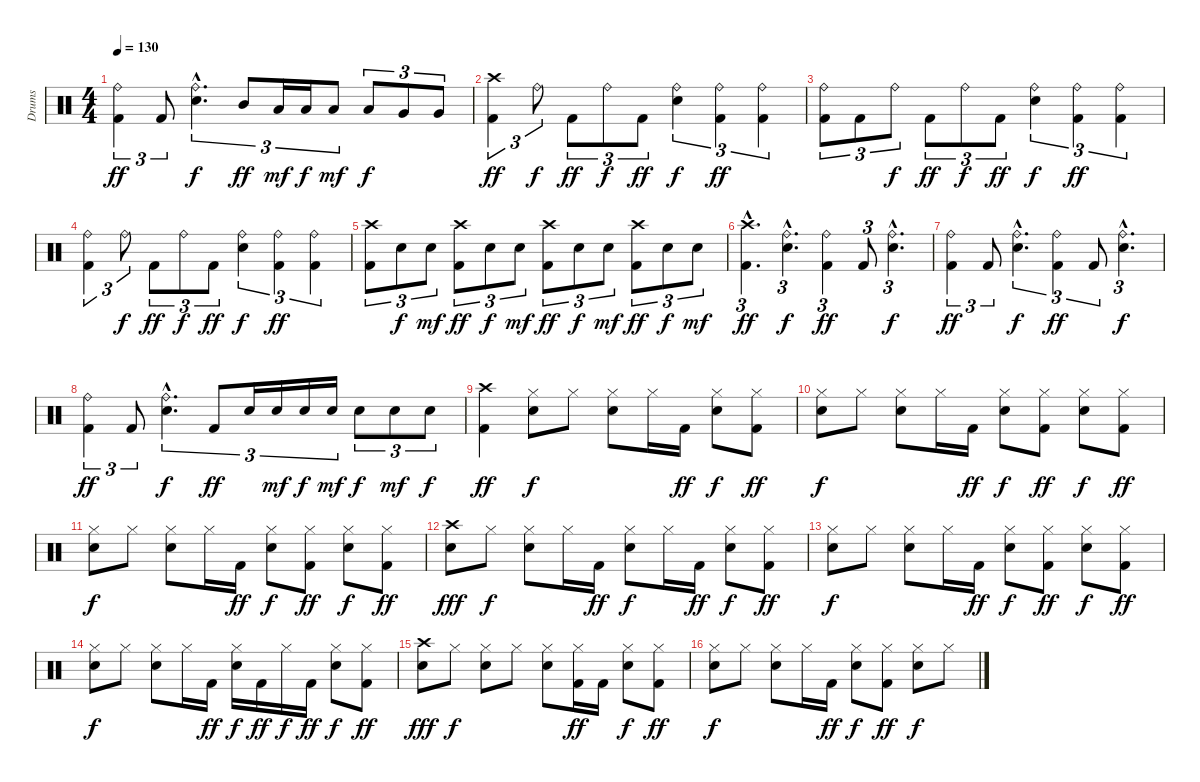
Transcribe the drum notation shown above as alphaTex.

\track ("Drums" "Drums") {instrument percussion}
\staff {score}
\articulation defaults
\ts (4 4)
\tempo 130
\clef neutral
\ks c
("Ride (bell)" "Kick (hit) 2").4{tu (3 2) dy ff} "Kick (hit) 2".8{tu (3 2)} ("Ride (bell)"{hac} "Snare (hit) 2"{hac}).4{d tu (3 2) dy f} "Mid Tom (hit)".8{tu (3 2) dy ff} "Low Tom (hit)".16{tu (3 2) dy mf} "Low Tom (hit)".16{tu (3 2) dy f} "Low Tom (hit)".8{tu (3 2) dy mf} "Low Tom (hit)".8{tu (3 2) dy f} "Very Low Tom (hit)".8{tu (3 2)} "Very Low Tom (hit)".8{tu (3 2)} |
("Crash high (hit)" "Kick (hit) 2").4{tu (3 2) dy ff} "Ride (bell)".8{tu (3 2) dy f} "Kick (hit) 2".8{tu (3 2) dy ff} "Ride (bell)".8{tu (3 2) dy f} "Kick (hit) 2".8{tu (3 2) dy ff} ("Ride (bell)" "Snare (hit) 2").4{tu (3 2) dy f} ("Ride (bell)" "Kick (hit) 2").4{tu (3 2) dy ff} ("Ride (bell)" "Kick (hit) 2").4{tu (3 2)} |
("Ride (bell)" "Kick (hit) 2").8{tu (3 2)} "Kick (hit) 2".8{tu (3 2)} "Ride (bell)".8{tu (3 2) dy f} "Kick (hit) 2".8{tu (3 2) dy ff} "Ride (bell)".8{tu (3 2) dy f} "Kick (hit) 2".8{tu (3 2) dy ff} ("Ride (bell)" "Snare (hit) 2").4{tu (3 2) dy f} ("Ride (bell)" "Kick (hit) 2").4{tu (3 2) dy ff} ("Ride (bell)" "Kick (hit) 2").4{tu (3 2)} |
("Ride (bell)" "Kick (hit) 2").4{tu (3 2)} "Ride (bell)".8{tu (3 2) dy f} "Kick (hit) 2".8{tu (3 2) dy ff} "Ride (bell)".8{tu (3 2) dy f} "Kick (hit) 2".8{tu (3 2) dy ff} ("Ride (bell)" "Snare (hit) 2").4{tu (3 2) dy f} ("Ride (bell)" "Kick (hit) 2").4{tu (3 2) dy ff} ("Ride (bell)" "Kick (hit) 2").4{tu (3 2)} |
("Crash high (hit)" "Kick (hit) 2").8{tu (3 2)} "Snare (hit) 2".8{tu (3 2) dy f} "Snare (hit) 2".8{tu (3 2) dy mf} ("Crash high (hit)" "Kick (hit) 2").8{tu (3 2) dy ff} "Snare (hit) 2".8{tu (3 2) dy f} "Snare (hit) 2".8{tu (3 2) dy mf} ("Crash high (hit)" "Kick (hit) 2").8{tu (3 2) dy ff} "Snare (hit) 2".8{tu (3 2) dy f} "Snare (hit) 2".8{tu (3 2) dy mf} ("Crash high (hit)" "Kick (hit) 2").8{tu (3 2) dy ff} "Snare (hit) 2".8{tu (3 2) dy f} "Snare (hit) 2".8{tu (3 2) dy mf} |
("Crash high (hit)"{hac} "Kick (hit) 2"{hac}).4{d tu (3 2) dy ff} ("Ride (bell)"{hac} "Snare (hit) 2"{hac}).4{d tu (3 2) dy f} ("Ride (bell)" "Kick (hit) 2").4{tu (3 2) dy ff} "Kick (hit) 2".8{tu (3 2)} ("Ride (bell)"{hac} "Snare (hit) 2"{hac}).4{d tu (3 2) dy f} |
("Ride (bell)" "Kick (hit) 2").4{tu (3 2) dy ff} "Kick (hit) 2".8{tu (3 2)} ("Ride (bell)"{hac} "Snare (hit) 2"{hac}).4{d tu (3 2) dy f} ("Ride (bell)" "Kick (hit) 2").4{tu (3 2) dy ff} "Kick (hit) 2".8{tu (3 2)} ("Ride (bell)"{hac} "Snare (hit) 2"{hac}).4{d tu (3 2) dy f} |
("Ride (bell)" "Kick (hit) 2").4{tu (3 2) dy ff} "Kick (hit) 2".8{tu (3 2)} ("Ride (bell)"{hac} "Snare (hit) 2"{hac}).4{d tu (3 2) dy f} "Kick (hit) 2".8{tu (3 2) dy ff} "Snare (hit) 2".16{tu (3 2)} "Snare (hit) 2".16{tu (3 2) dy mf} "Snare (hit) 2".16{tu (3 2) dy f} "Snare (hit) 2".16{tu (3 2) dy mf} "Snare (hit) 2".8{tu (3 2) dy f} "Snare (hit) 2".8{tu (3 2) dy mf} "Snare (hit) 2".8{tu (3 2) dy f} |
("Crash high (hit)" "Kick (hit) 2").4{dy ff} ("Hi-Hat (closed)" "Snare (hit) 2").8{dy f} "Hi-Hat (closed)".8 ("Hi-Hat (closed)" "Snare (hit) 2").8 "Hi-Hat (closed)".16 "Kick (hit) 2".16{dy ff} ("Hi-Hat (closed)" "Snare (hit) 2").8{dy f} ("Hi-Hat (closed)" "Kick (hit) 2").8{dy ff} |
("Hi-Hat (closed)" "Snare (hit) 2").8{dy f} "Hi-Hat (closed)".8 ("Hi-Hat (closed)" "Snare (hit) 2").8 "Hi-Hat (closed)".16 "Kick (hit) 2".16{dy ff} ("Hi-Hat (closed)" "Snare (hit) 2").8{dy f} ("Hi-Hat (closed)" "Kick (hit) 2").8{dy ff} ("Hi-Hat (closed)" "Snare (hit) 2").8{dy f} ("Hi-Hat (closed)" "Kick (hit) 2").8{dy ff} |
("Hi-Hat (closed)" "Snare (hit) 2").8{dy f} "Hi-Hat (closed)".8 ("Hi-Hat (closed)" "Snare (hit) 2").8 "Hi-Hat (closed)".16 "Kick (hit) 2".16{dy ff} ("Hi-Hat (closed)" "Snare (hit) 2").8{dy f} ("Hi-Hat (closed)" "Kick (hit) 2").8{dy ff} ("Hi-Hat (closed)" "Snare (hit) 2").8{dy f} ("Hi-Hat (closed)" "Kick (hit) 2").8{dy ff} |
("Crash high (hit)" "Snare (hit) 2").8{dy fff} "Hi-Hat (closed)".8{dy f} ("Hi-Hat (closed)" "Snare (hit) 2").8 "Hi-Hat (closed)".16 "Kick (hit) 2".16{dy ff} ("Hi-Hat (closed)" "Snare (hit) 2").8{dy f} "Hi-Hat (closed)".16 "Kick (hit) 2".16{dy ff} ("Hi-Hat (closed)" "Snare (hit) 2").8{dy f} ("Hi-Hat (closed)" "Kick (hit) 2").8{dy ff} |
("Hi-Hat (closed)" "Snare (hit) 2").8{dy f} "Hi-Hat (closed)".8 ("Hi-Hat (closed)" "Snare (hit) 2").8 "Hi-Hat (closed)".16 "Kick (hit) 2".16{dy ff} ("Hi-Hat (closed)" "Snare (hit) 2").8{dy f} ("Hi-Hat (closed)" "Kick (hit) 2").8{dy ff} ("Hi-Hat (closed)" "Snare (hit) 2").8{dy f} ("Hi-Hat (closed)" "Kick (hit) 2").8{dy ff} |
("Hi-Hat (closed)" "Snare (hit) 2").8{dy f} "Hi-Hat (closed)".8 ("Hi-Hat (closed)" "Snare (hit) 2").8 "Hi-Hat (closed)".16 "Kick (hit) 2".16{dy ff} ("Hi-Hat (closed)" "Snare (hit) 2").16{dy f} "Kick (hit) 2".16{dy ff} "Hi-Hat (closed)".16{dy f} "Kick (hit) 2".16{dy ff} ("Hi-Hat (closed)" "Snare (hit) 2").8{dy f} ("Hi-Hat (closed)" "Kick (hit) 2").8{dy ff} |
("Crash high (hit)" "Snare (hit) 2").8{dy fff} "Hi-Hat (closed)".8{dy f} ("Hi-Hat (closed)" "Snare (hit) 2").8 "Hi-Hat (closed)".8 ("Hi-Hat (closed)" "Snare (hit) 2").8 ("Hi-Hat (closed)" "Kick (hit) 2").16{dy ff} "Kick (hit) 2".16 ("Hi-Hat (closed)" "Snare (hit) 2").8{dy f} ("Hi-Hat (closed)" "Kick (hit) 2").8{dy ff} |
("Hi-Hat (closed)" "Snare (hit) 2").8{dy f} "Hi-Hat (closed)".8 ("Hi-Hat (closed)" "Snare (hit) 2").8 "Hi-Hat (closed)".16 "Kick (hit) 2".16{dy ff} ("Hi-Hat (closed)" "Snare (hit) 2").8{dy f} ("Hi-Hat (closed)" "Kick (hit) 2").8{dy ff} ("Hi-Hat (closed)" "Snare (hit) 2").8{dy f} "Hi-Hat (closed)".8
